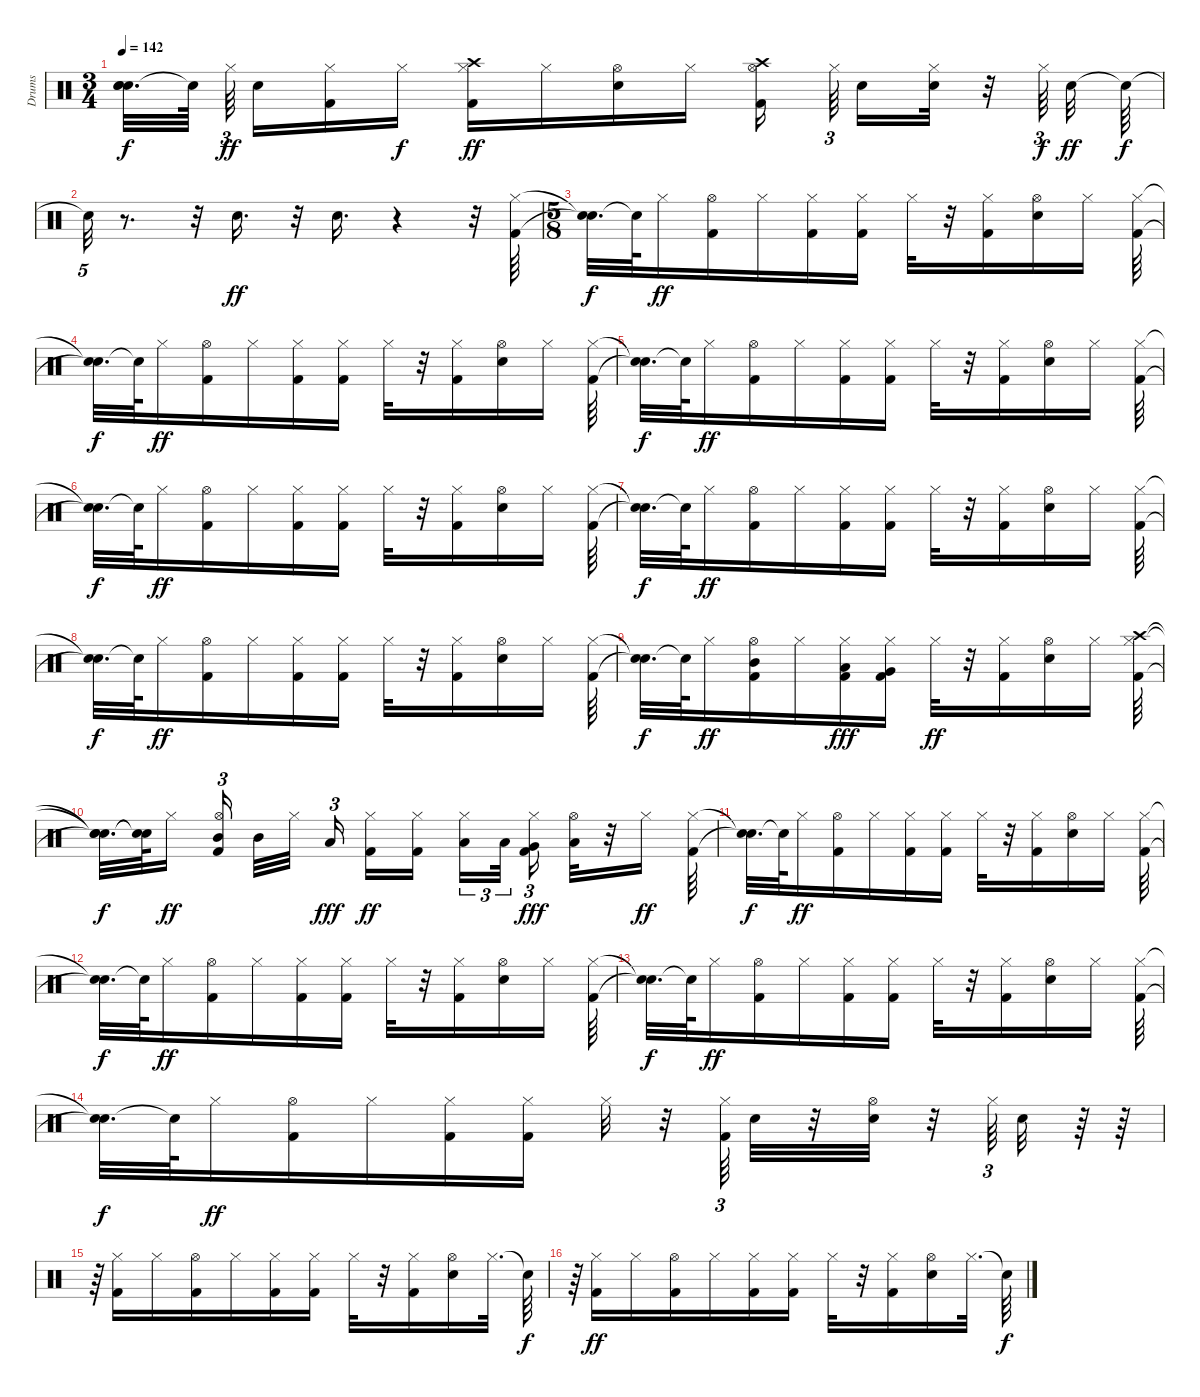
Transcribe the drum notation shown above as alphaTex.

\track ("Drums                               " "Drums     ") {instrument percussion}
\staff {score}
\articulation defaults
\ts (3 4)
\tempo 142
\clef neutral
\ks c
("Snare (hit)"{t} "Snare (hit)"{t} "Snare (hit)"{t}).32{d dy f} "Snare (hit)"{t}.64 "Hi-Hat (closed)".64{tu (3 2) dy ff} "Snare (hit) 2".16 ("Kick (hit) 2" "Hi-Hat (closed)").16 "Hi-Hat (closed)".16{dy f} ("Hi-Hat (closed)" "Kick (hit) 2" "Crash high (hit)").16{dy ff} "Hi-Hat (closed)".16 ("Snare (hit) 2" "Hi-Hat (open)").16 "Hi-Hat (closed)".16 ("Kick (hit) 2" "Hi-Hat (open)" "Crash high (hit)").16 "Hi-Hat (closed)".64{tu (3 2)} "Snare (hit) 2".16 ("Snare (hit) 2" "Hi-Hat (closed)").32 r.32 "Hi-Hat (closed)".64{tu (3 2) dy f} "Snare (hit) 2".32{dy ff} "Snare (hit)"{t}.64{dy f} |
"Snare (hit)"{t}.32{tu (5 4)} r.8{d} r.32 "Snare (hit) 2".16{d dy ff} r.32 "Snare (hit) 2".16{d} r.4 r.32 ("Kick (hit) 2" "Hi-Hat (closed)").64 |
\ts (5 8)
("Snare (hit)"{t} "Snare (hit)"{t}).32{d dy f} "Snare (hit)"{t}.64 "Hi-Hat (closed)".16{dy ff} ("Hi-Hat (open)" "Kick (hit) 2").16 "Hi-Hat (closed)".16 ("Hi-Hat (closed)" "Kick (hit) 2").16 ("Kick (hit) 2" "Hi-Hat (closed)").16 "Hi-Hat (closed)".32 r.32 ("Kick (hit) 2" "Hi-Hat (closed)").16 ("Hi-Hat (open)" "Snare (hit) 2").16 "Hi-Hat (closed)".16 ("Kick (hit) 2" "Hi-Hat (closed)").64 |
("Snare (hit)"{t} "Snare (hit)"{t}).32{d dy f} "Snare (hit)"{t}.64 "Hi-Hat (closed)".16{dy ff} ("Hi-Hat (open)" "Kick (hit) 2").16 "Hi-Hat (closed)".16 ("Hi-Hat (closed)" "Kick (hit) 2").16 ("Kick (hit) 2" "Hi-Hat (closed)").16 "Hi-Hat (closed)".32 r.32 ("Kick (hit) 2" "Hi-Hat (closed)").16 ("Hi-Hat (open)" "Snare (hit) 2").16 "Hi-Hat (closed)".16 ("Hi-Hat (closed)" "Kick (hit) 2").64 |
("Snare (hit)"{t} "Snare (hit)"{t}).32{d dy f} "Snare (hit)"{t}.64 "Hi-Hat (closed)".16{dy ff} ("Hi-Hat (open)" "Kick (hit) 2").16 "Hi-Hat (closed)".16 ("Kick (hit) 2" "Hi-Hat (closed)").16 ("Kick (hit) 2" "Hi-Hat (closed)").16 "Hi-Hat (closed)".32 r.32 ("Kick (hit) 2" "Hi-Hat (closed)").16 ("Snare (hit) 2" "Hi-Hat (open)").16 "Hi-Hat (closed)".16 ("Hi-Hat (closed)" "Kick (hit) 2").64 |
("Snare (hit)"{t} "Snare (hit)"{t}).32{d dy f} "Snare (hit)"{t}.64 "Hi-Hat (closed)".16{dy ff} ("Kick (hit) 2" "Hi-Hat (open)").16 "Hi-Hat (closed)".16 ("Kick (hit) 2" "Hi-Hat (closed)").16 ("Kick (hit) 2" "Hi-Hat (closed)").16 "Hi-Hat (closed)".32 r.32 ("Kick (hit) 2" "Hi-Hat (closed)").16 ("Snare (hit) 2" "Hi-Hat (open)").16 "Hi-Hat (closed)".16 ("Hi-Hat (closed)" "Kick (hit) 2").64 |
("Snare (hit)"{t} "Snare (hit)"{t}).32{d dy f} "Snare (hit)"{t}.64 "Hi-Hat (closed)".16{dy ff} ("Kick (hit) 2" "Hi-Hat (open)").16 "Hi-Hat (closed)".16 ("Hi-Hat (closed)" "Kick (hit) 2").16 ("Kick (hit) 2" "Hi-Hat (closed)").16 "Hi-Hat (closed)".32 r.32 ("Kick (hit) 2" "Hi-Hat (closed)").16 ("Hi-Hat (open)" "Snare (hit) 2").16 "Hi-Hat (closed)".16 ("Hi-Hat (closed)" "Kick (hit) 2").64 |
("Snare (hit)"{t} "Snare (hit)"{t}).32{d dy f} "Snare (hit)"{t}.64 "Hi-Hat (closed)".16{dy ff} ("Kick (hit) 2" "Hi-Hat (open)").16 "Hi-Hat (closed)".16 ("Kick (hit) 2" "Hi-Hat (closed)").16 ("Kick (hit) 2" "Hi-Hat (closed)").16 "Hi-Hat (closed)".32 r.32 ("Kick (hit) 2" "Hi-Hat (closed)").16 ("Snare (hit) 2" "Hi-Hat (open)").16 "Hi-Hat (closed)".16 ("Kick (hit) 2" "Hi-Hat (closed)").64 |
("Snare (hit)"{t} "Snare (hit)"{t}).32{d dy f} "Snare (hit)"{t}.64 "Hi-Hat (closed)".16{dy ff} ("Kick (hit) 2" "Mid Tom (hit)" "Hi-Hat (open)").16 "Hi-Hat (closed)".16 ("Kick (hit) 2" "Hi-Hat (closed)" "Low Tom (hit)").16{dy fff} ("Kick (hit) 2" "Very Low Tom (hit)" "Hi-Hat (closed)").16 "Hi-Hat (closed)".32{dy ff} r.32 ("Kick (hit) 2" "Hi-Hat (closed)").16 ("Hi-Hat (open)" "Snare (hit) 2").16 "Hi-Hat (closed)".16 ("Hi-Hat (closed)" "Kick (hit) 2" "Crash high (hit)").64 |
("Snare (hit)"{t} "Snare (hit)"{t} "Snare (hit)"{t}).32{d dy f} ("Snare (hit)"{t} "Snare (hit)"{t}).64 "Hi-Hat (closed)".16{dy ff} ("Hi-Hat (open)" "Mid Tom (hit)" "Kick (hit) 2").16{tu (3 2)} "Mid Tom (hit)".32 "Hi-Hat (closed)".32 "Low Tom (hit)".16{tu (3 2) dy fff} ("Kick (hit) 2" "Hi-Hat (closed)").16{dy ff} ("Kick (hit) 2" "Hi-Hat (closed)").16 ("Hi-Hat (closed)" "Low Tom (hit)").16{tu (3 2)} "Low Tom (hit)".32{tu (3 2)} ("Kick (hit) 2" "Hi-Hat (closed)" "Very Low Tom (hit)").16{tu (3 2) dy fff} ("Hi-Hat (open)" "Low Floor Tom (hit)").32 r.32 "Hi-Hat (closed)".16{dy ff} ("Hi-Hat (closed)" "Kick (hit) 2").64 |
("Snare (hit)"{t} "Snare (hit)"{t}).32{d dy f} "Snare (hit)"{t}.64 "Hi-Hat (closed)".16{dy ff} ("Hi-Hat (open)" "Kick (hit) 2").16 "Hi-Hat (closed)".16 ("Hi-Hat (closed)" "Kick (hit) 2").16 ("Kick (hit) 2" "Hi-Hat (closed)").16 "Hi-Hat (closed)".32 r.32 ("Kick (hit) 2" "Hi-Hat (closed)").16 ("Hi-Hat (open)" "Snare (hit) 2").16 "Hi-Hat (closed)".16 ("Hi-Hat (closed)" "Kick (hit) 2").64 |
("Snare (hit)"{t} "Snare (hit)"{t}).32{d dy f} "Snare (hit)"{t}.64 "Hi-Hat (closed)".16{dy ff} ("Kick (hit) 2" "Hi-Hat (open)").16 "Hi-Hat (closed)".16 ("Hi-Hat (closed)" "Kick (hit) 2").16 ("Kick (hit) 2" "Hi-Hat (closed)").16 "Hi-Hat (closed)".32 r.32 ("Kick (hit) 2" "Hi-Hat (closed)").16 ("Hi-Hat (open)" "Snare (hit) 2").16 "Hi-Hat (closed)".16 ("Kick (hit) 2" "Hi-Hat (closed)").64 |
("Snare (hit)"{t} "Snare (hit)"{t}).32{d dy f} "Snare (hit)"{t}.64 "Hi-Hat (closed)".16{dy ff} ("Hi-Hat (open)" "Kick (hit) 2").16 "Hi-Hat (closed)".16 ("Kick (hit) 2" "Hi-Hat (closed)").16 ("Kick (hit) 2" "Hi-Hat (closed)").16 "Hi-Hat (closed)".32 r.32 ("Kick (hit) 2" "Hi-Hat (closed)").16 ("Snare (hit) 2" "Hi-Hat (open)").16 "Hi-Hat (closed)".16 ("Kick (hit) 2" "Hi-Hat (closed)").64 |
("Snare (hit)"{t} "Snare (hit)"{t}).32{d dy f} "Snare (hit)"{t}.64 "Hi-Hat (closed)".16{dy ff} ("Kick (hit) 2" "Hi-Hat (open)").16 "Hi-Hat (closed)".16 ("Kick (hit) 2" "Hi-Hat (closed)").16 ("Kick (hit) 2" "Hi-Hat (closed)").16 "Hi-Hat (closed)".32 r.32 ("Kick (hit) 2" "Hi-Hat (closed)").64{tu (3 2)} "Snare (hit) 2".32 r.32 ("Snare (hit) 2" "Hi-Hat (open)").32 r.32 "Hi-Hat (closed)".64{tu (3 2)} "Snare (hit) 2".32 r.64 r.64 |
r.64 ("Hi-Hat (closed)" "Kick (hit) 2").16 "Hi-Hat (closed)".16 ("Kick (hit) 2" "Hi-Hat (open)").16 "Hi-Hat (closed)".16 ("Kick (hit) 2" "Hi-Hat (closed)").16 ("Kick (hit) 2" "Hi-Hat (closed)").16 "Hi-Hat (closed)".32 r.32 ("Kick (hit) 2" "Hi-Hat (closed)").16 ("Hi-Hat (open)" "Snare (hit) 2").16 "Hi-Hat (closed)".32{d} "Snare (hit)"{t}.64{dy f} |
r.64 ("Kick (hit) 2" "Hi-Hat (closed)").16{dy ff} "Hi-Hat (closed)".16 ("Kick (hit) 2" "Hi-Hat (open)").16 "Hi-Hat (closed)".16 ("Kick (hit) 2" "Hi-Hat (closed)").16 ("Kick (hit) 2" "Hi-Hat (closed)").16 "Hi-Hat (closed)".32 r.32 ("Kick (hit) 2" "Hi-Hat (closed)").16 ("Hi-Hat (open)" "Snare (hit) 2").16 "Hi-Hat (closed)".32{d} "Snare (hit)"{t}.64{dy f}
